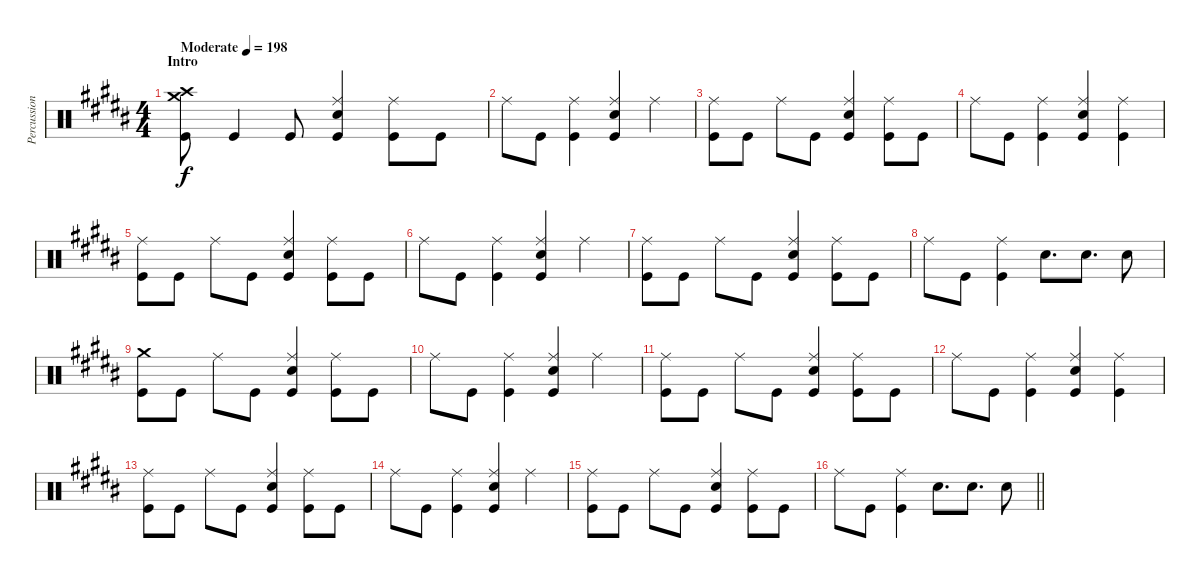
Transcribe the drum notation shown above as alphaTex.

\track ("Percussion" "Percussion") {instrument percussion}
\staff {score}
\articulation defaults
\ts (4 4)
\section ("" "Intro")
\tempo (198 "Moderate")
\clef neutral
\ks b
("Crash high (hit)" "Crash medium (hit)" "Kick (hit)").8{dy f} "Kick (hit)".4 "Kick (hit)".8 ("Ride (middle)" "Electric Snare (hit)" "Kick (hit)").4 ("Ride (middle)" "Kick (hit)").8 "Kick (hit)".8 |
"Ride (middle)".8 "Kick (hit)".8 ("Ride (middle)" "Kick (hit)").4 ("Ride (middle)" "Electric Snare (hit)" "Kick (hit)").4 "Ride (middle)".4 |
("Ride (middle)" "Kick (hit)").8 "Kick (hit)".8 "Ride (middle)".8 "Kick (hit)".8 ("Ride (middle)" "Electric Snare (hit)" "Kick (hit)").4 ("Ride (middle)" "Kick (hit)").8 "Kick (hit)".8 |
"Ride (middle)".8 "Kick (hit)".8 ("Ride (middle)" "Kick (hit)").4 ("Ride (middle)" "Electric Snare (hit)" "Kick (hit)").4 ("Ride (middle)" "Kick (hit)").4 |
("Ride (middle)" "Kick (hit)").8 "Kick (hit)".8 "Ride (middle)".8 "Kick (hit)".8 ("Ride (middle)" "Electric Snare (hit)" "Kick (hit)").4 ("Ride (middle)" "Kick (hit)").8 "Kick (hit)".8 |
"Ride (middle)".8 "Kick (hit)".8 ("Ride (middle)" "Kick (hit)").4 ("Ride (middle)" "Electric Snare (hit)" "Kick (hit)").4 "Ride (middle)".4 |
("Ride (middle)" "Kick (hit)").8 "Kick (hit)".8 "Ride (middle)".8 "Kick (hit)".8 ("Ride (middle)" "Electric Snare (hit)" "Kick (hit)").4 ("Ride (middle)" "Kick (hit)").8 "Kick (hit)".8 |
"Ride (middle)".8 "Kick (hit)".8 ("Ride (middle)" "Kick (hit)").4 "Electric Snare (hit)".8{d} "Electric Snare (hit)".8{d} "Electric Snare (hit)".8 |
("Crash medium (hit)" "Kick (hit)").8 "Kick (hit)".8 "Ride (middle)".8 "Kick (hit)".8 ("Ride (middle)" "Electric Snare (hit)" "Kick (hit)").4 ("Ride (middle)" "Kick (hit)").8 "Kick (hit)".8 |
"Ride (middle)".8 "Kick (hit)".8 ("Ride (middle)" "Kick (hit)").4 ("Ride (middle)" "Electric Snare (hit)" "Kick (hit)").4 "Ride (middle)".4 |
("Ride (middle)" "Kick (hit)").8 "Kick (hit)".8 "Ride (middle)".8 "Kick (hit)".8 ("Ride (middle)" "Electric Snare (hit)" "Kick (hit)").4 ("Ride (middle)" "Kick (hit)").8 "Kick (hit)".8 |
"Ride (middle)".8 "Kick (hit)".8 ("Ride (middle)" "Kick (hit)").4 ("Ride (middle)" "Electric Snare (hit)" "Kick (hit)").4 ("Ride (middle)" "Kick (hit)").4 |
("Ride (middle)" "Kick (hit)").8 "Kick (hit)".8 "Ride (middle)".8 "Kick (hit)".8 ("Ride (middle)" "Electric Snare (hit)" "Kick (hit)").4 ("Ride (middle)" "Kick (hit)").8 "Kick (hit)".8 |
"Ride (middle)".8 "Kick (hit)".8 ("Ride (middle)" "Kick (hit)").4 ("Ride (middle)" "Electric Snare (hit)" "Kick (hit)").4 "Ride (middle)".4 |
("Ride (middle)" "Kick (hit)").8 "Kick (hit)".8 "Ride (middle)".8 "Kick (hit)".8 ("Ride (middle)" "Electric Snare (hit)" "Kick (hit)").4 ("Ride (middle)" "Kick (hit)").8 "Kick (hit)".8 |
\barLineRight lightlight "Ride (middle)".8 "Kick (hit)".8
("Ride (middle)" "Kick (hit)").4 "Electric Snare (hit)".8{d} "Electric Snare (hit)".8{d} "Electric Snare (hit)".8
